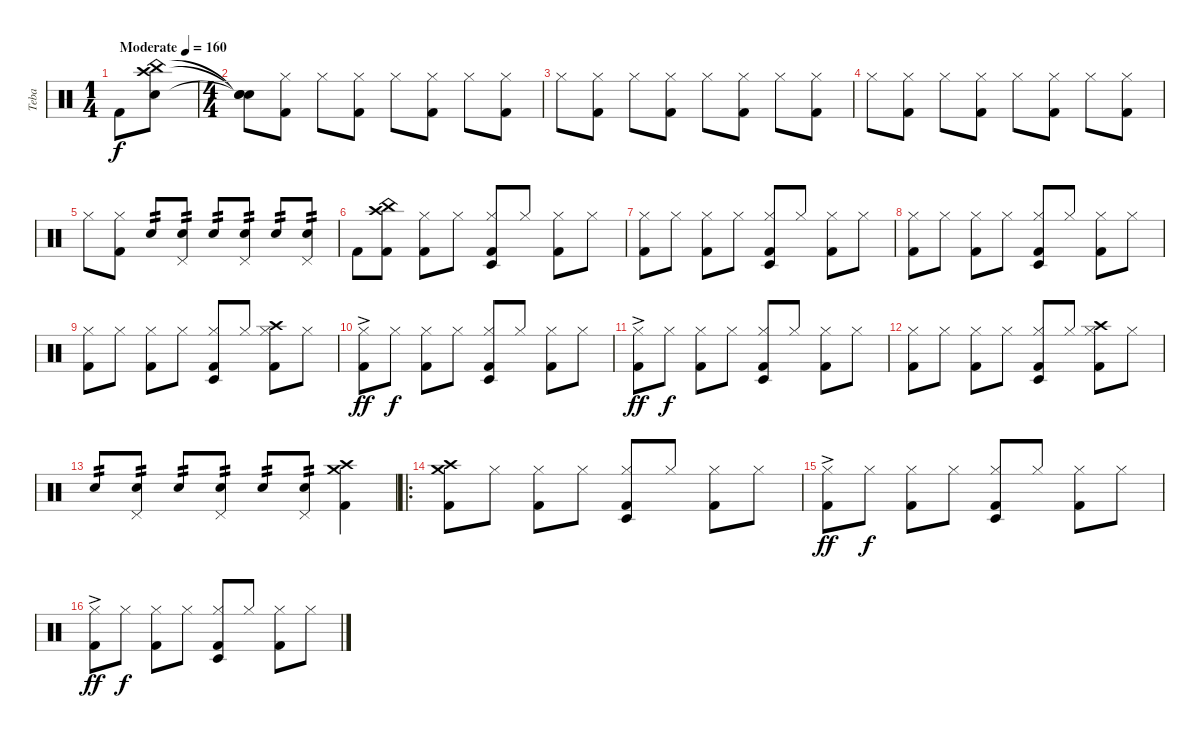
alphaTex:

\track ("Teba" "Teba") {instrument percussion}
\staff {score}
\articulation defaults
\ts (1 4)
\tempo (160 "Moderate")
\clef neutral
\ks c "Kick (hit) 2".8{dy f}
("China (hit)" "Crash high (hit)" "Electric Snare (hit)").8 |
\ts (4 4)
("Snare (hit)"{t} "Snare (hit)"{t} "Snare (hit)"{t}).8 ("Hi-Hat (closed)" "Kick (hit) 2").8 "Hi-Hat (closed)".8 ("Hi-Hat (closed)" "Kick (hit) 2").8 "Hi-Hat (closed)".8 ("Hi-Hat (closed)" "Kick (hit) 2").8 "Hi-Hat (closed)".8 ("Hi-Hat (closed)" "Kick (hit) 2").8 |
"Hi-Hat (closed)".8 ("Hi-Hat (closed)" "Kick (hit) 2").8 "Hi-Hat (closed)".8 ("Hi-Hat (closed)" "Kick (hit) 2").8 "Hi-Hat (closed)".8 ("Hi-Hat (closed)" "Kick (hit) 2").8 "Hi-Hat (closed)".8 ("Hi-Hat (closed)" "Kick (hit) 2").8 |
"Hi-Hat (closed)".8 ("Hi-Hat (closed)" "Kick (hit) 2").8 "Hi-Hat (closed)".8 ("Hi-Hat (closed)" "Kick (hit) 2").8 "Hi-Hat (closed)".8 ("Hi-Hat (closed)" "Kick (hit) 2").8 "Hi-Hat (closed)".8 ("Hi-Hat (closed)" "Kick (hit) 2").8 |
"Hi-Hat (closed)".8 ("Hi-Hat (closed)" "Kick (hit) 2").8 "Electric Snare (hit)".8{tp 2} ("Pedal Hi-Hat (hit)" "Electric Snare (hit)").8{tp 2} "Electric Snare (hit)".8{tp 2} ("Pedal Hi-Hat (hit)" "Electric Snare (hit)").8{tp 2} "Electric Snare (hit)".8{tp 2} ("Pedal Hi-Hat (hit)" "Electric Snare (hit)").8{tp 2} |
"Kick (hit) 2".8 ("China (hit)" "Crash high (hit)" "Kick (hit) 2").8 ("Hi-Hat (closed)" "Kick (hit) 2").8 "Hi-Hat (closed)".8 ("Hi-Hat (closed)" "Timbale low (hit)" "Kick (hit) 2").8 "Hi-Hat (closed)".8 ("Hi-Hat (closed)" "Kick (hit) 2").8 "Hi-Hat (closed)".8 |
("Hi-Hat (closed)" "Kick (hit) 2").8 "Hi-Hat (closed)".8 ("Hi-Hat (closed)" "Kick (hit) 2").8 "Hi-Hat (closed)".8 ("Hi-Hat (closed)" "Timbale low (hit)" "Kick (hit) 2").8 "Hi-Hat (closed)".8 ("Hi-Hat (closed)" "Kick (hit) 2").8 "Hi-Hat (closed)".8 |
("Hi-Hat (closed)" "Kick (hit) 2").8 "Hi-Hat (closed)".8 ("Hi-Hat (closed)" "Kick (hit) 2").8 "Hi-Hat (closed)".8 ("Hi-Hat (closed)" "Timbale low (hit)" "Kick (hit) 2").8 "Hi-Hat (closed)".8 ("Hi-Hat (closed)" "Kick (hit) 2").8 "Hi-Hat (closed)".8 |
("Hi-Hat (closed)" "Kick (hit) 2").8 "Hi-Hat (closed)".8 ("Hi-Hat (closed)" "Kick (hit) 2").8 "Hi-Hat (closed)".8 ("Hi-Hat (closed)" "Timbale low (hit)" "Kick (hit) 2").8 "Hi-Hat (closed)".8 ("Hi-Hat (closed)" "Crash high (hit)" "Kick (hit) 2").8 "Hi-Hat (closed)".8 |
("Hi-Hat (closed)" "Kick (hit) 2"{ac}).8{dy ff} "Hi-Hat (closed)".8{dy f} ("Hi-Hat (closed)" "Kick (hit) 2").8 "Hi-Hat (closed)".8 ("Hi-Hat (closed)" "Timbale low (hit)" "Kick (hit) 2").8 "Hi-Hat (closed)".8 ("Hi-Hat (closed)" "Kick (hit) 2").8 "Hi-Hat (closed)".8 |
("Hi-Hat (closed)" "Kick (hit) 2"{ac}).8{dy ff} "Hi-Hat (closed)".8{dy f} ("Hi-Hat (closed)" "Kick (hit) 2").8 "Hi-Hat (closed)".8 ("Hi-Hat (closed)" "Timbale low (hit)" "Kick (hit) 2").8 "Hi-Hat (closed)".8 ("Hi-Hat (closed)" "Kick (hit) 2").8 "Hi-Hat (closed)".8 |
("Hi-Hat (closed)" "Kick (hit) 2").8 "Hi-Hat (closed)".8 ("Hi-Hat (closed)" "Kick (hit) 2").8 "Hi-Hat (closed)".8 ("Hi-Hat (closed)" "Timbale low (hit)" "Kick (hit) 2").8 "Hi-Hat (closed)".8 ("Hi-Hat (closed)" "Crash high (hit)" "Kick (hit) 2").8 "Hi-Hat (closed)".8 |
"Electric Snare (hit)".8{tp 2} ("Pedal Hi-Hat (hit)" "Electric Snare (hit)").8{tp 2} "Electric Snare (hit)".8{tp 2} ("Pedal Hi-Hat (hit)" "Electric Snare (hit)").8{tp 2} "Electric Snare (hit)".8{tp 2} ("Pedal Hi-Hat (hit)" "Electric Snare (hit)").8{tp 2} ("Crash medium (hit)" "Crash high (hit)" "Kick (hit) 2").4 |
\ro
("Crash medium (hit)" "Crash high (hit)" "Kick (hit) 2").8 "Hi-Hat (closed)".8 ("Hi-Hat (closed)" "Kick (hit) 2").8 "Hi-Hat (closed)".8 ("Hi-Hat (closed)" "Timbale low (hit)" "Kick (hit) 2").8 "Hi-Hat (closed)".8 ("Hi-Hat (closed)" "Kick (hit) 2").8 "Hi-Hat (closed)".8 |
("Hi-Hat (closed)" "Kick (hit) 2"{ac}).8{dy ff} "Hi-Hat (closed)".8{dy f} ("Hi-Hat (closed)" "Kick (hit) 2").8 "Hi-Hat (closed)".8 ("Hi-Hat (closed)" "Timbale low (hit)" "Kick (hit) 2").8 "Hi-Hat (closed)".8 ("Hi-Hat (closed)" "Kick (hit) 2").8 "Hi-Hat (closed)".8 |
("Hi-Hat (closed)" "Kick (hit) 2"{ac}).8{dy ff} "Hi-Hat (closed)".8{dy f} ("Hi-Hat (closed)" "Kick (hit) 2").8 "Hi-Hat (closed)".8 ("Hi-Hat (closed)" "Timbale low (hit)" "Kick (hit) 2").8 "Hi-Hat (closed)".8 ("Hi-Hat (closed)" "Kick (hit) 2").8 "Hi-Hat (closed)".8
